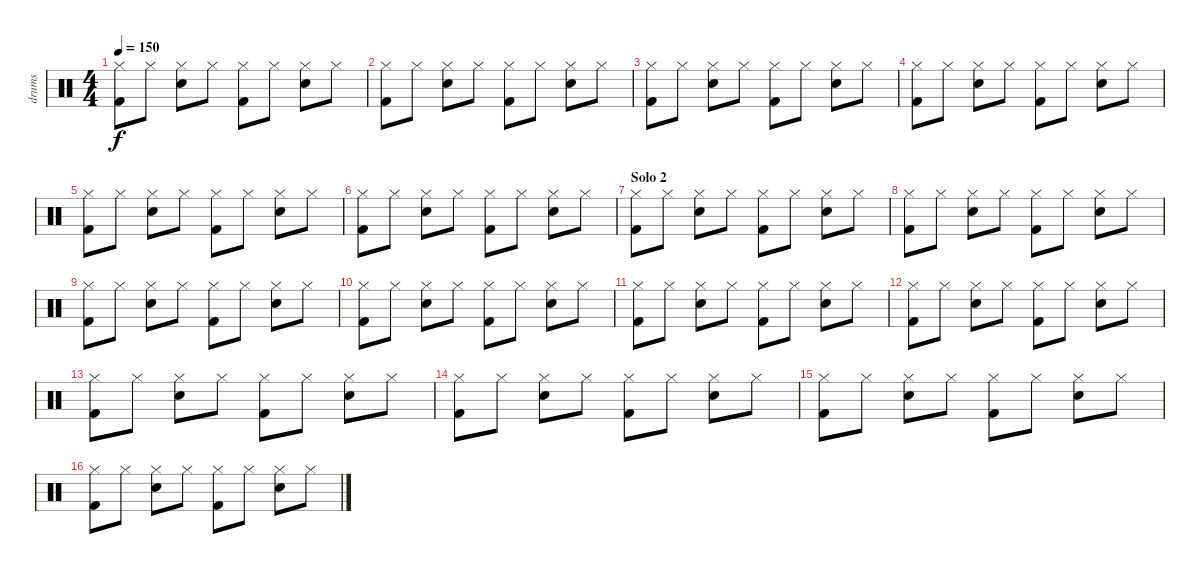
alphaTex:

\track ("drums" "drums") {instrument percussion}
\staff {score}
\articulation defaults
\ts (4 4)
\tempo 150
\clef neutral
\ks c
("Hi-Hat (closed)" "Kick (hit) 2").8{dy f} "Hi-Hat (closed)".8 ("Hi-Hat (closed)" "Electric Snare (hit)").8 "Hi-Hat (closed)".8 ("Hi-Hat (closed)" "Kick (hit) 2").8 "Hi-Hat (closed)".8 ("Hi-Hat (closed)" "Electric Snare (hit)").8 "Hi-Hat (closed)".8 |
("Hi-Hat (closed)" "Kick (hit) 2").8 "Hi-Hat (closed)".8 ("Hi-Hat (closed)" "Electric Snare (hit)").8 "Hi-Hat (closed)".8 ("Hi-Hat (closed)" "Kick (hit) 2").8 "Hi-Hat (closed)".8 ("Hi-Hat (closed)" "Electric Snare (hit)").8 "Hi-Hat (closed)".8 |
("Hi-Hat (closed)" "Kick (hit) 2").8 "Hi-Hat (closed)".8 ("Hi-Hat (closed)" "Electric Snare (hit)").8 "Hi-Hat (closed)".8 ("Hi-Hat (closed)" "Kick (hit) 2").8 "Hi-Hat (closed)".8 ("Hi-Hat (closed)" "Electric Snare (hit)").8 "Hi-Hat (closed)".8 |
("Hi-Hat (closed)" "Kick (hit) 2").8 "Hi-Hat (closed)".8 ("Hi-Hat (closed)" "Electric Snare (hit)").8 "Hi-Hat (closed)".8 ("Hi-Hat (closed)" "Kick (hit) 2").8 "Hi-Hat (closed)".8 ("Hi-Hat (closed)" "Electric Snare (hit)").8 "Hi-Hat (closed)".8 |
("Hi-Hat (closed)" "Kick (hit) 2").8 "Hi-Hat (closed)".8 ("Hi-Hat (closed)" "Electric Snare (hit)").8 "Hi-Hat (closed)".8 ("Hi-Hat (closed)" "Kick (hit) 2").8 "Hi-Hat (closed)".8 ("Hi-Hat (closed)" "Electric Snare (hit)").8 "Hi-Hat (closed)".8 |
("Hi-Hat (closed)" "Kick (hit) 2").8 "Hi-Hat (closed)".8 ("Hi-Hat (closed)" "Electric Snare (hit)").8 "Hi-Hat (closed)".8 ("Hi-Hat (closed)" "Kick (hit) 2").8 "Hi-Hat (closed)".8 ("Hi-Hat (closed)" "Electric Snare (hit)").8 "Hi-Hat (closed)".8 |
\section ("" "Solo 2")
("Hi-Hat (closed)" "Kick (hit) 2").8 "Hi-Hat (closed)".8 ("Hi-Hat (closed)" "Electric Snare (hit)").8 "Hi-Hat (closed)".8 ("Hi-Hat (closed)" "Kick (hit) 2").8 "Hi-Hat (closed)".8 ("Hi-Hat (closed)" "Electric Snare (hit)").8 "Hi-Hat (closed)".8 |
("Hi-Hat (closed)" "Kick (hit) 2").8 "Hi-Hat (closed)".8 ("Hi-Hat (closed)" "Electric Snare (hit)").8 "Hi-Hat (closed)".8 ("Hi-Hat (closed)" "Kick (hit) 2").8 "Hi-Hat (closed)".8 ("Hi-Hat (closed)" "Electric Snare (hit)").8 "Hi-Hat (closed)".8 |
("Hi-Hat (closed)" "Kick (hit) 2").8 "Hi-Hat (closed)".8 ("Hi-Hat (closed)" "Electric Snare (hit)").8 "Hi-Hat (closed)".8 ("Hi-Hat (closed)" "Kick (hit) 2").8 "Hi-Hat (closed)".8 ("Hi-Hat (closed)" "Electric Snare (hit)").8 "Hi-Hat (closed)".8 |
("Hi-Hat (closed)" "Kick (hit) 2").8 "Hi-Hat (closed)".8 ("Hi-Hat (closed)" "Electric Snare (hit)").8 "Hi-Hat (closed)".8 ("Hi-Hat (closed)" "Kick (hit) 2").8 "Hi-Hat (closed)".8 ("Hi-Hat (closed)" "Electric Snare (hit)").8 "Hi-Hat (closed)".8 |
("Hi-Hat (closed)" "Kick (hit) 2").8 "Hi-Hat (closed)".8 ("Hi-Hat (closed)" "Electric Snare (hit)").8 "Hi-Hat (closed)".8 ("Hi-Hat (closed)" "Kick (hit) 2").8 "Hi-Hat (closed)".8 ("Hi-Hat (closed)" "Electric Snare (hit)").8 "Hi-Hat (closed)".8 |
("Hi-Hat (closed)" "Kick (hit) 2").8 "Hi-Hat (closed)".8 ("Hi-Hat (closed)" "Electric Snare (hit)").8 "Hi-Hat (closed)".8 ("Hi-Hat (closed)" "Kick (hit) 2").8 "Hi-Hat (closed)".8 ("Hi-Hat (closed)" "Electric Snare (hit)").8 "Hi-Hat (closed)".8 |
("Hi-Hat (closed)" "Kick (hit) 2").8 "Hi-Hat (closed)".8 ("Hi-Hat (closed)" "Electric Snare (hit)").8 "Hi-Hat (closed)".8 ("Hi-Hat (closed)" "Kick (hit) 2").8 "Hi-Hat (closed)".8 ("Hi-Hat (closed)" "Electric Snare (hit)").8 "Hi-Hat (closed)".8 |
("Hi-Hat (closed)" "Kick (hit) 2").8 "Hi-Hat (closed)".8 ("Hi-Hat (closed)" "Electric Snare (hit)").8 "Hi-Hat (closed)".8 ("Hi-Hat (closed)" "Kick (hit) 2").8 "Hi-Hat (closed)".8 ("Hi-Hat (closed)" "Electric Snare (hit)").8 "Hi-Hat (closed)".8 |
("Hi-Hat (closed)" "Kick (hit) 2").8 "Hi-Hat (closed)".8 ("Hi-Hat (closed)" "Electric Snare (hit)").8 "Hi-Hat (closed)".8 ("Hi-Hat (closed)" "Kick (hit) 2").8 "Hi-Hat (closed)".8 ("Hi-Hat (closed)" "Electric Snare (hit)").8 "Hi-Hat (closed)".8 |
("Hi-Hat (closed)" "Kick (hit) 2").8 "Hi-Hat (closed)".8 ("Hi-Hat (closed)" "Electric Snare (hit)").8 "Hi-Hat (closed)".8 ("Hi-Hat (closed)" "Kick (hit) 2").8 "Hi-Hat (closed)".8 ("Hi-Hat (closed)" "Electric Snare (hit)").8 "Hi-Hat (closed)".8
